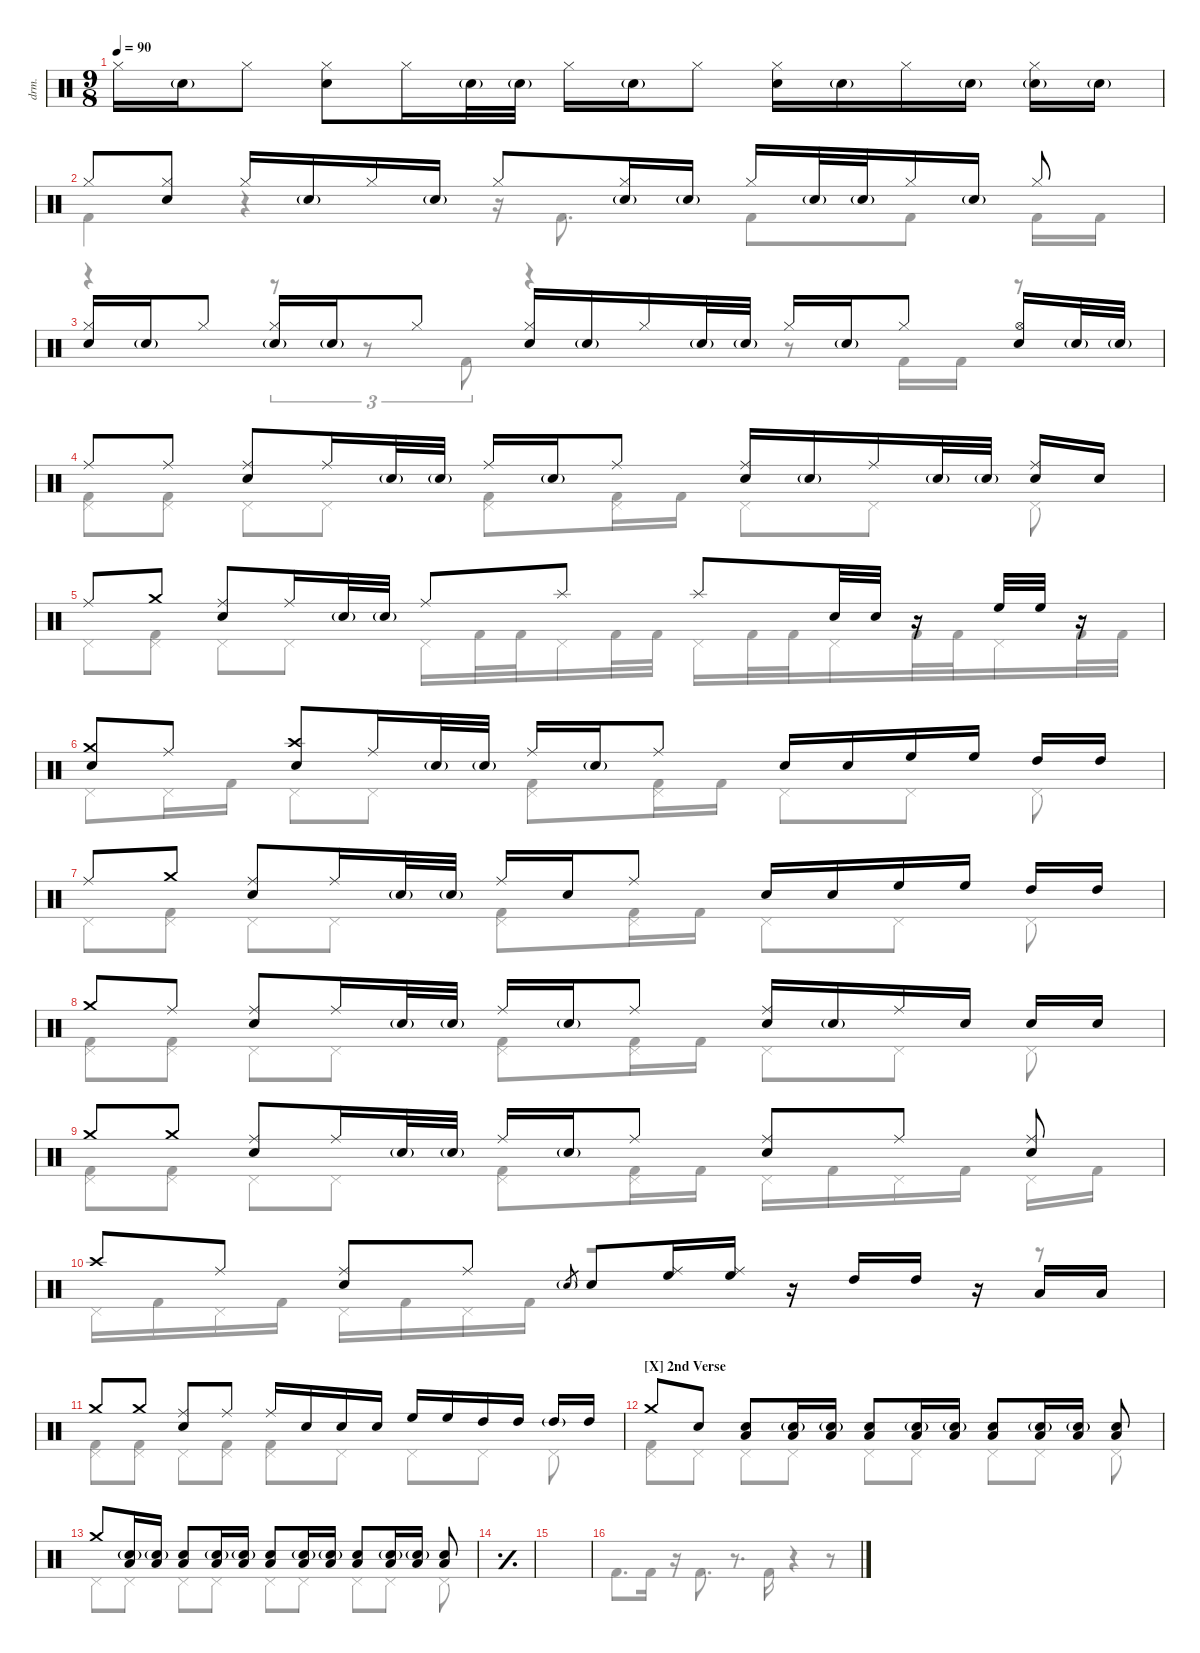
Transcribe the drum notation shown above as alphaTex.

\defaultSystemsLayout 4
\hideDynamics
\bracketExtendMode nobrackets
\track ("Drums" "drm.") {instrument percussion}
\staff {score}
\articulation defaults
\voice
\ts (9 8)
\tempo 90
\clef neutral
\ks c "Hi-Hat (closed)".16{dy mf} "Snare (hit) 2"{g}.16 "Hi-Hat (closed)".8{beam split}
("Hi-Hat (closed)" "Snare (hit) 2").8{beam merge} "Hi-Hat (closed)".16 "Snare (hit) 2"{g}.32 "Snare (hit) 2"{g}.32{beam split} "Hi-Hat (closed)".16 "Snare (hit) 2"{g}.16 "Hi-Hat (closed)".8 ("Hi-Hat (closed)" "Snare (hit) 2").16 "Snare (hit) 2"{g}.16 "Hi-Hat (closed)".16 "Snare (hit) 2"{g}.16{beam split} ("Snare (hit) 2"{g} "Hi-Hat (closed)").16 "Snare (hit) 2"{g}.16 |
\scale
0.511207 "Hi-Hat (closed)".8 ("Hi-Hat (closed)" "Snare (hit) 2").8{beam split} "Hi-Hat (closed)".16 "Snare (hit) 2"{g}.16{beam merge} "Hi-Hat (closed)".16 "Snare (hit) 2"{g}.16{beam split} "Hi-Hat (closed)".8 ("Hi-Hat (closed)" "Snare (hit) 2"{g}).16 "Snare (hit) 2"{g}.16 "Hi-Hat (closed)".16 "Snare (hit) 2"{g}.32 "Snare (hit) 2"{g}.32 "Hi-Hat (closed)".16 "Snare (hit) 2"{g}.16{beam split} "Hi-Hat (closed)".8 |
\scale
0.488793 ("Hi-Hat (closed)" "Snare (hit) 2").16 "Snare (hit) 2"{g}.16 "Hi-Hat (closed)".8{beam split} ("Hi-Hat (closed)" "Snare (hit) 2"{g}).16 "Snare (hit) 2"{g}.16{beam merge} "Hi-Hat (closed)".8{beam split} ("Hi-Hat (closed)" "Snare (hit) 2").16 "Snare (hit) 2"{g}.16 "Hi-Hat (closed)".16 "Snare (hit) 2"{g}.32 "Snare (hit) 2"{g}.32 "Hi-Hat (closed)".16 "Snare (hit) 2"{g}.16 "Hi-Hat (closed)".8{beam split} ("Hi-Hat (open)" "Snare (hit) 2").16 "Snare (hit) 2"{g}.32 "Snare (hit) 2"{g}.32 |
"Ride (middle)".8 "Ride (middle)".8{beam split} ("Ride (middle)" "Snare (hit) 2").8{beam merge} "Ride (middle)".16 "Snare (hit) 2"{g}.32 "Snare (hit) 2"{g}.32{beam split} "Ride (middle)".16 "Snare (hit) 2"{g}.16 "Ride (middle)".8 ("Ride (middle)" "Snare (hit) 2").16 "Snare (hit) 2"{g}.16 "Ride (middle)".16 "Snare (hit) 2"{g}.32 "Snare (hit) 2"{g}.32{beam split} ("Ride (middle)" "Snare (hit) 2").16 "Snare (hit) 2".16 |
"Ride (middle)".8 "Crash medium (hit)".8{beam split} ("Ride (middle)" "Snare (hit) 2").8{beam merge} "Ride (middle)".16 "Snare (hit) 2"{g}.32 "Snare (hit) 2"{g}.32{beam split} "Ride (middle)".8 "Splash (hit)".8 "Splash (hit)".8 "Snare (hit) 2".32 "Snare (hit) 2".32{beam split} r.16 "High Floor Tom (hit)".32 "High Floor Tom (hit)".32 r.16 |
("Snare (hit) 2" "Crash medium (hit)").8 "Ride (middle)".8{beam split} ("Crash high (hit)" "Snare (hit) 2").8{beam merge} "Ride (middle)".16 "Snare (hit) 2"{g}.32 "Snare (hit) 2"{g}.32{beam split} "Ride (middle)".16 "Snare (hit) 2"{g}.16 "Ride (middle)".8 "Snare (hit) 2".16 "Snare (hit) 2".16 "High Floor Tom (hit)".16 "High Floor Tom (hit)".16{beam split} "High Tom (hit)".16 "High Tom (hit)".16 |
"Ride (middle)".8 "Crash medium (hit)".8{beam split} ("Ride (middle)" "Snare (hit) 2").8{beam merge} "Ride (middle)".16 "Snare (hit) 2"{g}.32 "Snare (hit) 2"{g}.32{beam split} "Ride (middle)".16 "Snare (hit) 2".16 "Ride (middle)".8 "Snare (hit) 2".16 "Snare (hit) 2".16 "High Floor Tom (hit)".16 "High Floor Tom (hit)".16{beam split} "High Tom (hit)".16 "High Tom (hit)".16 |
\scale
0.509215 "Crash medium (hit)".8 "Ride (middle)".8{beam split} ("Ride (middle)" "Snare (hit) 2").8{beam merge} "Ride (middle)".16 "Snare (hit) 2"{g}.32 "Snare (hit) 2"{g}.32{beam split} "Ride (middle)".16 "Snare (hit) 2"{g}.16 "Ride (middle)".8 ("Ride (middle)" "Snare (hit) 2").16 "Snare (hit) 2"{g}.16 "Ride (middle)".16 "Snare (hit) 2".16{beam split} "Snare (hit) 2".16 "Snare (hit) 2".16 |
\scale
0.490785 "Crash medium (hit)".8 "Crash medium (hit)".8{beam split} ("Ride (middle)" "Snare (hit) 2").8{beam merge} "Ride (middle)".16 "Snare (hit) 2"{g}.32 "Snare (hit) 2"{g}.32{beam split} "Ride (middle)".16 "Snare (hit) 2"{g}.16 "Ride (middle)".8 ("Ride (middle)" "Snare (hit) 2").8 "Ride (middle)".8{beam split} ("Ride (middle)" "Snare (hit) 2").8 |
\scale
0.511207 "Crash high (hit)".8 "Ride (middle)".8{beam split} ("Ride (middle)" "Snare (hit) 2").8{beam merge} "Ride (middle)".8{beam split} "Snare (hit) 2"{g}.8{gr beam split} "Snare (hit) 2".8 ("High Floor Tom (hit)" "Ride (middle)").16 ("High Floor Tom (hit)" "Ride (middle)").16 r.16 "High Tom (hit)".16 "High Tom (hit)".16{beam split} r.16{beam split} "Low Tom (hit)".16 "Low Tom (hit)".16 |
\scale
0.488793 "Crash medium (hit)".8 "Crash medium (hit)".8{beam split} ("Ride (middle)" "Snare (hit) 2").8{beam merge} "Ride (middle)".8{beam split} "Ride (middle)".16 "Snare (hit) 2".16 "Snare (hit) 2".16 "Snare (hit) 2".16 "High Floor Tom (hit)".16 "High Floor Tom (hit)".16 "High Tom (hit)".16 "High Tom (hit)".16{beam split} "High Tom (hit)"{g}.16 "High Tom (hit)".16 |
\section ("X" "2nd Verse")
"Crash medium (hit)".8 "Snare (hit) 2".8{beam split} ("Snare (hit) 2" "Low Tom (hit)").8{beam merge} ("Low Tom (hit)" "Snare (hit) 2"{g}).16 ("Low Tom (hit)" "Snare (hit) 2"{g}).16{beam split} ("Snare (hit) 2" "Low Tom (hit)").8 ("Low Tom (hit)" "Snare (hit) 2"{g}).16 ("Low Tom (hit)" "Snare (hit) 2"{g}).16{beam split} ("Snare (hit) 2" "Low Tom (hit)").8 ("Low Tom (hit)" "Snare (hit) 2"{g}).16 ("Low Tom (hit)" "Snare (hit) 2"{g}).16{beam split} ("Low Tom (hit)" "Snare (hit) 2").8 |
"Crash medium (hit)".8 ("Low Tom (hit)" "Snare (hit) 2"{g}).16 ("Low Tom (hit)" "Snare (hit) 2"{g}).16{beam split} ("Snare (hit) 2" "Low Tom (hit)").8{beam merge} ("Low Tom (hit)" "Snare (hit) 2"{g}).16 ("Low Tom (hit)" "Snare (hit) 2"{g}).16{beam split} ("Snare (hit) 2" "Low Tom (hit)").8 ("Low Tom (hit)" "Snare (hit) 2"{g}).16 ("Low Tom (hit)" "Snare (hit) 2"{g}).16{beam split} ("Snare (hit) 2" "Low Tom (hit)").8 ("Low Tom (hit)" "Snare (hit) 2"{g}).16 ("Low Tom (hit)" "Snare (hit) 2"{g}).16{beam split} ("Snare (hit) 2" "Low Tom (hit)").8 |
\simile simple
|
|
\scale
0.511206
\voice
\clef neutral
\ottava regular
\simile none
\ks c "Kick (hit) 2".8{d dy mf} "Kick (hit) 2".16{beam split}
r.16{beam split} "Kick (hit) 2".8{d} r.8{d} "Kick (hit) 2".16 r.4 r.8 |
\scale
0.511207 "Kick (hit) 2".4 r.4 r.16 "Kick (hit) 2".8{d} "Kick (hit) 2".8 "Kick (hit) 2".8{beam split} "Kick (hit) 2".16 "Kick (hit) 2".16 |
\scale
0.488793 r.4 r.8{tu (3 2)} r.8{tu (3 2)} "Kick (hit) 2".8{tu (3 2)} r.4 r.8 "Kick (hit) 2".16 "Kick (hit) 2".16 r.8 |
("Kick (hit) 2" "Pedal Hi-Hat (hit)").8 ("Pedal Hi-Hat (hit)" "Kick (hit) 2").8{beam split} "Pedal Hi-Hat (hit)".8{beam merge} "Pedal Hi-Hat (hit)".8{beam split} ("Pedal Hi-Hat (hit)" "Kick (hit) 2").8 ("Kick (hit) 2" "Pedal Hi-Hat (hit)").16 "Kick (hit) 2".16 "Pedal Hi-Hat (hit)".8 "Pedal Hi-Hat (hit)".8{beam split} "Pedal Hi-Hat (hit)".8 |
"Pedal Hi-Hat (hit)".8 ("Pedal Hi-Hat (hit)" "Kick (hit) 2").8{beam split} "Pedal Hi-Hat (hit)".8{beam merge} "Pedal Hi-Hat (hit)".8{beam split} "Pedal Hi-Hat (hit)".16 "Kick (hit) 2".32 "Kick (hit) 2".32 "Pedal Hi-Hat (hit)".16 "Kick (hit) 2".32 "Kick (hit) 2".32 "Pedal Hi-Hat (hit)".16 "Kick (hit) 2".32 "Kick (hit) 2".32 "Pedal Hi-Hat (hit)".16 "Kick (hit) 2".32 "Kick (hit) 2".32 "Pedal Hi-Hat (hit)".16 "Kick (hit) 2".32 "Kick (hit) 2".32 |
"Pedal Hi-Hat (hit)".8 "Pedal Hi-Hat (hit)".16 "Kick (hit) 2".16{beam split} "Pedal Hi-Hat (hit)".8{beam merge} "Pedal Hi-Hat (hit)".8{beam split} ("Pedal Hi-Hat (hit)" "Kick (hit) 2").8 ("Kick (hit) 2" "Pedal Hi-Hat (hit)").16 "Kick (hit) 2".16 "Pedal Hi-Hat (hit)".8 "Pedal Hi-Hat (hit)".8{beam split} "Pedal Hi-Hat (hit)".8 |
"Pedal Hi-Hat (hit)".8 ("Pedal Hi-Hat (hit)" "Kick (hit) 2").8{beam split} "Pedal Hi-Hat (hit)".8{beam merge} "Pedal Hi-Hat (hit)".8{beam split} ("Pedal Hi-Hat (hit)" "Kick (hit) 2").8 ("Kick (hit) 2" "Pedal Hi-Hat (hit)").16 "Kick (hit) 2".16 "Pedal Hi-Hat (hit)".8 "Pedal Hi-Hat (hit)".8{beam split} "Pedal Hi-Hat (hit)".8 |
\scale
0.509215 ("Pedal Hi-Hat (hit)" "Kick (hit) 2").8 ("Pedal Hi-Hat (hit)" "Kick (hit) 2").8{beam split} "Pedal Hi-Hat (hit)".8{beam merge} "Pedal Hi-Hat (hit)".8{beam split} ("Pedal Hi-Hat (hit)" "Kick (hit) 2").8 ("Kick (hit) 2" "Pedal Hi-Hat (hit)").16 "Kick (hit) 2".16 "Pedal Hi-Hat (hit)".8 "Pedal Hi-Hat (hit)".8{beam split} "Pedal Hi-Hat (hit)".8 |
\scale
0.490785 ("Pedal Hi-Hat (hit)" "Kick (hit) 2").8 ("Pedal Hi-Hat (hit)" "Kick (hit) 2").8{beam split} "Pedal Hi-Hat (hit)".8{beam merge} "Pedal Hi-Hat (hit)".8{beam split} ("Pedal Hi-Hat (hit)" "Kick (hit) 2").8 ("Kick (hit) 2" "Pedal Hi-Hat (hit)").16 "Kick (hit) 2".16 "Pedal Hi-Hat (hit)".16 "Kick (hit) 2".16 "Pedal Hi-Hat (hit)".16 "Kick (hit) 2".16{beam split} "Pedal Hi-Hat (hit)".16 "Kick (hit) 2".16 |
\scale
0.511207 "Pedal Hi-Hat (hit)".16 "Kick (hit) 2".16 "Pedal Hi-Hat (hit)".16 "Kick (hit) 2".16{beam split} "Pedal Hi-Hat (hit)".16 "Kick (hit) 2".16{beam merge} "Pedal Hi-Hat (hit)".16 "Kick (hit) 2".16 r.2 r.8 |
\scale
0.488793 ("Kick (hit) 2" "Pedal Hi-Hat (hit)").8 ("Kick (hit) 2" "Pedal Hi-Hat (hit)").8{beam split} "Pedal Hi-Hat (hit)".8{beam merge} ("Pedal Hi-Hat (hit)" "Kick (hit) 2").8{beam split} ("Kick (hit) 2" "Pedal Hi-Hat (hit)").8 "Pedal Hi-Hat (hit)".8 "Pedal Hi-Hat (hit)".8 "Pedal Hi-Hat (hit)".8{beam split} "Pedal Hi-Hat (hit)".8 |
("Kick (hit) 2" "Pedal Hi-Hat (hit)").8 "Pedal Hi-Hat (hit)".8{beam split} "Pedal Hi-Hat (hit)".8{beam merge} "Pedal Hi-Hat (hit)".8{beam split} "Pedal Hi-Hat (hit)".8 "Pedal Hi-Hat (hit)".8 "Pedal Hi-Hat (hit)".8 "Pedal Hi-Hat (hit)".8{beam split} "Pedal Hi-Hat (hit)".8 |
"Pedal Hi-Hat (hit)".8 "Pedal Hi-Hat (hit)".8{beam split} "Pedal Hi-Hat (hit)".8{beam merge} "Pedal Hi-Hat (hit)".8{beam split} "Pedal Hi-Hat (hit)".8 "Pedal Hi-Hat (hit)".8 "Pedal Hi-Hat (hit)".8 "Pedal Hi-Hat (hit)".8{beam split} "Pedal Hi-Hat (hit)".8 |
\simile simple
|
|
\scale
0.511206
